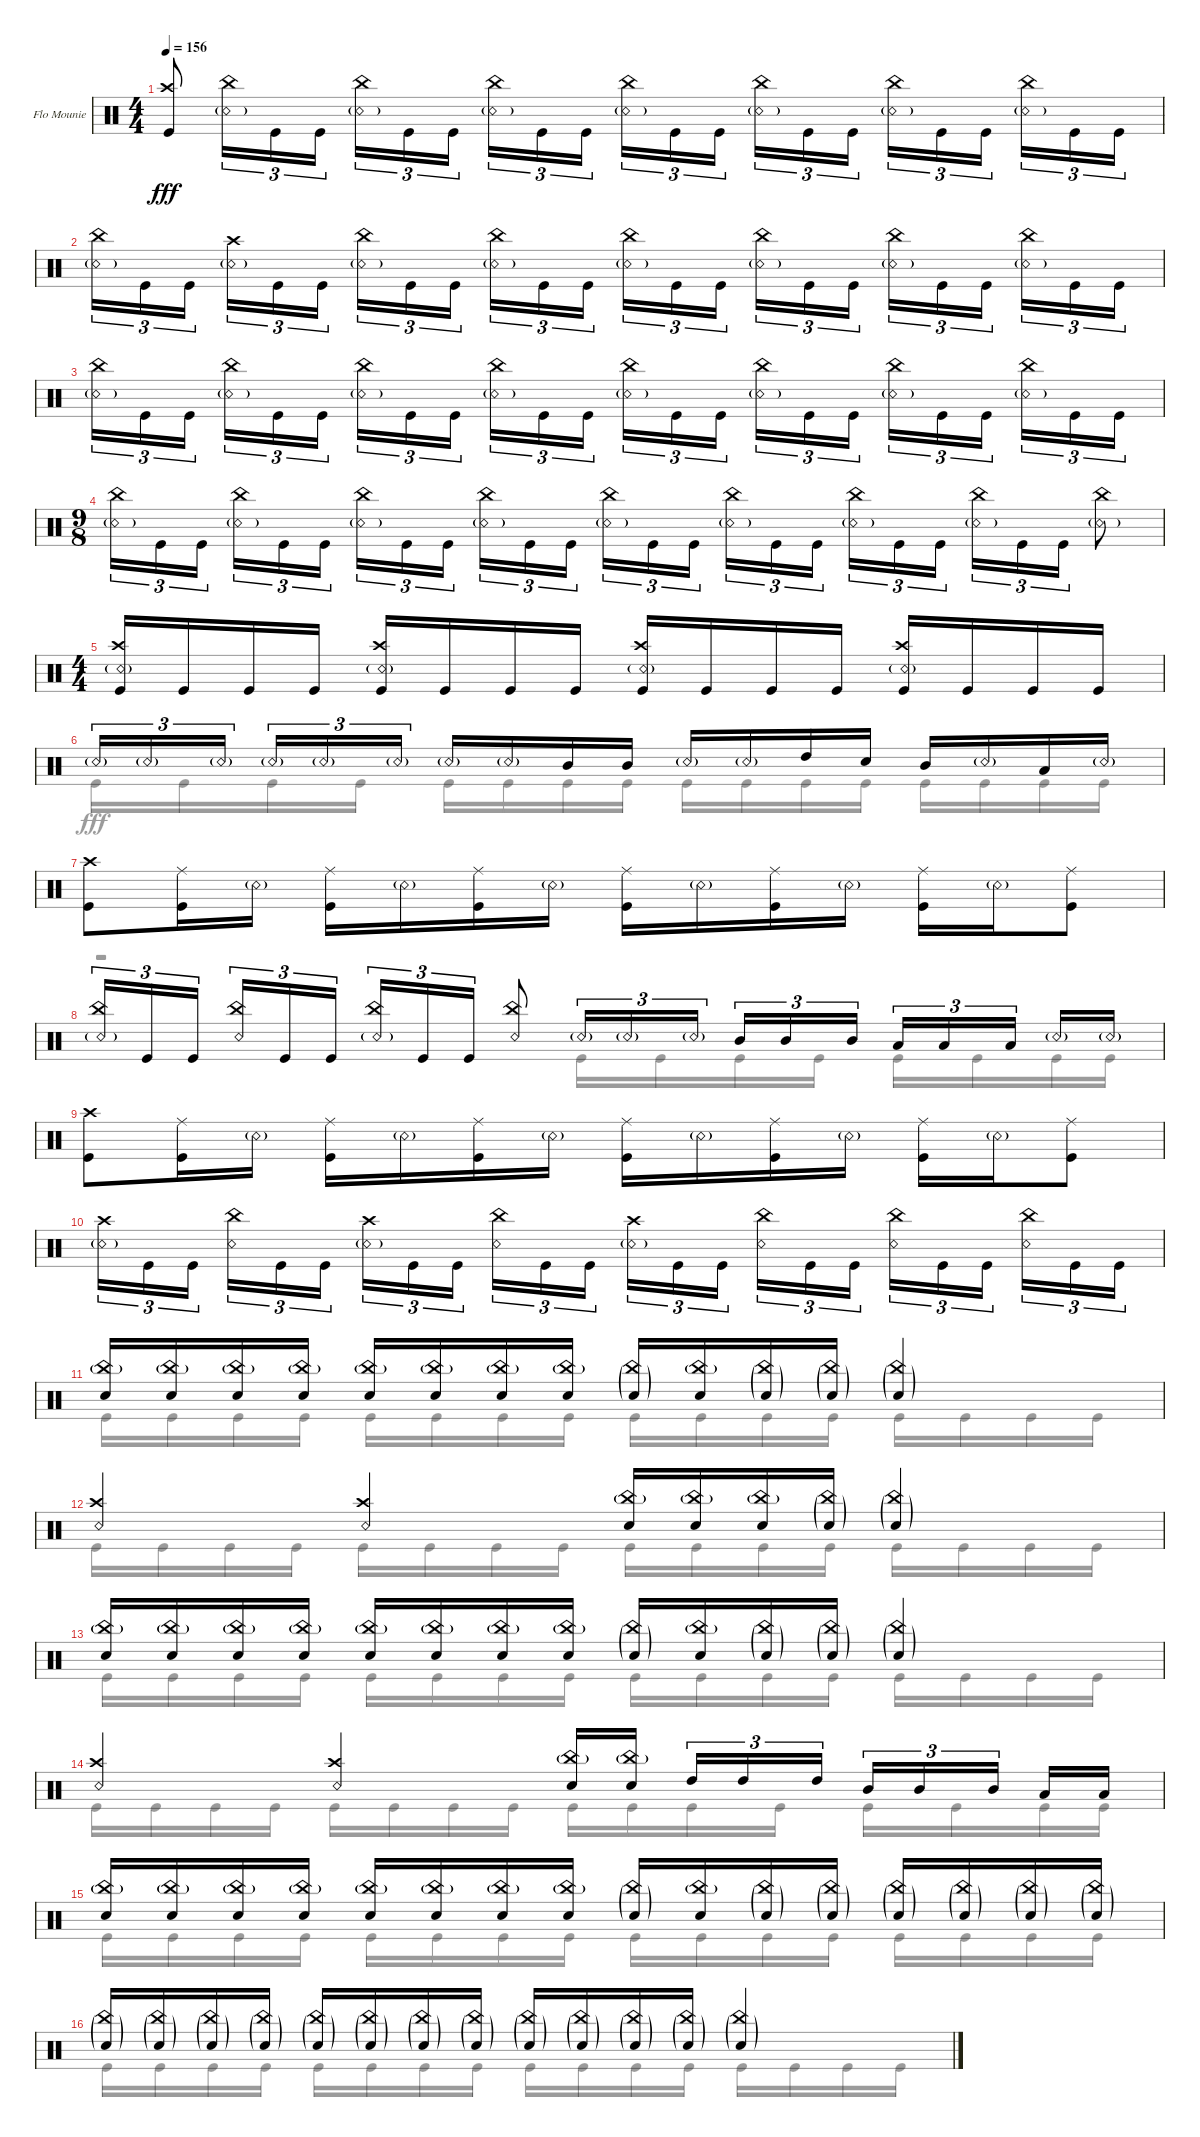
\bracketExtendMode groupsimilarinstruments
\firstSystemTrackNameOrientation horizontal
\otherSystemsTrackNameOrientation horizontal
\track ("Flo Mounier" "Flo Mounie") {instrument percussion}
\staff {score}
\articulation defaults
\voice
\ts (4 4)
\tempo 156
\clef neutral
\ks c
("Kick (hit)" "Crash high (hit)").8{dy fff beam invert} ("Snare (rim shot)"{g} "China (hit)").16{tu (3 2)} "Kick (hit)".16{tu (3 2)} "Kick (hit)".16{tu (3 2)} ("Snare (rim shot)"{g} "China (hit)").16{tu (3 2)} "Kick (hit)".16{tu (3 2)} "Kick (hit)".16{tu (3 2)} ("Snare (rim shot)"{g} "China (hit)").16{tu (3 2)} "Kick (hit)".16{tu (3 2)} "Kick (hit)".16{tu (3 2)} ("Snare (rim shot)"{g} "China (hit)").16{tu (3 2)} "Kick (hit)".16{tu (3 2)} "Kick (hit)".16{tu (3 2)} ("Snare (rim shot)"{g} "China (hit)").16{tu (3 2)} "Kick (hit)".16{tu (3 2)} "Kick (hit)".16{tu (3 2)} ("Snare (rim shot)"{g} "China (hit)").16{tu (3 2)} "Kick (hit)".16{tu (3 2)} "Kick (hit)".16{tu (3 2)} ("Snare (rim shot)"{g} "China (hit)").16{tu (3 2)} "Kick (hit)".16{tu (3 2)} "Kick (hit)".16{tu (3 2)} |
("Snare (rim shot)"{g} "China (hit)").16{tu (3 2)} "Kick (hit)".16{tu (3 2)} "Kick (hit)".16{tu (3 2)} ("Snare (rim shot)"{g} "Crash high (hit)").16{tu (3 2)} "Kick (hit)".16{tu (3 2)} "Kick (hit)".16{tu (3 2)} ("Snare (rim shot)"{g} "China (hit)").16{tu (3 2)} "Kick (hit)".16{tu (3 2)} "Kick (hit)".16{tu (3 2)} ("Snare (rim shot)"{g} "China (hit)").16{tu (3 2)} "Kick (hit)".16{tu (3 2)} "Kick (hit)".16{tu (3 2)} ("Snare (rim shot)"{g} "China (hit)").16{tu (3 2)} "Kick (hit)".16{tu (3 2)} "Kick (hit)".16{tu (3 2)} ("Snare (rim shot)"{g} "China (hit)").16{tu (3 2)} "Kick (hit)".16{tu (3 2)} "Kick (hit)".16{tu (3 2)} ("Snare (rim shot)"{g} "China (hit)").16{tu (3 2)} "Kick (hit)".16{tu (3 2)} "Kick (hit)".16{tu (3 2)} ("Snare (rim shot)"{g} "China (hit)").16{tu (3 2)} "Kick (hit)".16{tu (3 2)} "Kick (hit)".16{tu (3 2)} |
("Snare (rim shot)"{g} "China (hit)").16{tu (3 2)} "Kick (hit)".16{tu (3 2)} "Kick (hit)".16{tu (3 2)} ("Snare (rim shot)"{g} "China (hit)").16{tu (3 2)} "Kick (hit)".16{tu (3 2)} "Kick (hit)".16{tu (3 2)} ("Snare (rim shot)"{g} "China (hit)").16{tu (3 2)} "Kick (hit)".16{tu (3 2)} "Kick (hit)".16{tu (3 2)} ("Snare (rim shot)"{g} "China (hit)").16{tu (3 2)} "Kick (hit)".16{tu (3 2)} "Kick (hit)".16{tu (3 2)} ("Snare (rim shot)"{g} "China (hit)").16{tu (3 2)} "Kick (hit)".16{tu (3 2)} "Kick (hit)".16{tu (3 2)} ("Snare (rim shot)"{g} "China (hit)").16{tu (3 2)} "Kick (hit)".16{tu (3 2)} "Kick (hit)".16{tu (3 2)} ("Snare (rim shot)"{g} "China (hit)").16{tu (3 2)} "Kick (hit)".16{tu (3 2)} "Kick (hit)".16{tu (3 2)} ("Snare (rim shot)"{g} "China (hit)").16{tu (3 2)} "Kick (hit)".16{tu (3 2)} "Kick (hit)".16{tu (3 2)} |
\ts (9 8)
\beaming (8 2 2 2 3)
("Snare (rim shot)"{g} "China (hit)").16{tu (3 2)} "Kick (hit)".16{tu (3 2)} "Kick (hit)".16{tu (3 2)} ("Snare (rim shot)"{g} "China (hit)").16{tu (3 2)} "Kick (hit)".16{tu (3 2)} "Kick (hit)".16{tu (3 2)} ("Snare (rim shot)"{g} "China (hit)").16{tu (3 2)} "Kick (hit)".16{tu (3 2)} "Kick (hit)".16{tu (3 2)} ("Snare (rim shot)"{g} "China (hit)").16{tu (3 2)} "Kick (hit)".16{tu (3 2)} "Kick (hit)".16{tu (3 2)} ("Snare (rim shot)"{g} "China (hit)").16{tu (3 2)} "Kick (hit)".16{tu (3 2)} "Kick (hit)".16{tu (3 2)} ("Snare (rim shot)"{g} "China (hit)").16{tu (3 2)} "Kick (hit)".16{tu (3 2)} "Kick (hit)".16{tu (3 2)} ("Snare (rim shot)"{g} "China (hit)").16{tu (3 2)} "Kick (hit)".16{tu (3 2)} "Kick (hit)".16{tu (3 2)} ("Snare (rim shot)"{g} "China (hit)").16{tu (3 2)} "Kick (hit)".16{tu (3 2)} "Kick (hit)".16{tu (3 2)} ("Snare (rim shot)"{g} "China (hit)").8 |
\ts (4 4)
("Kick (hit)" "Snare (rim shot)"{g} "Crash high (hit)").16 "Kick (hit)".16 "Kick (hit)".16 "Kick (hit)".16 ("Kick (hit)" "Snare (rim shot)"{g} "Crash high (hit)").16 "Kick (hit)".16 "Kick (hit)".16 "Kick (hit)".16 ("Kick (hit)" "Snare (rim shot)"{g} "Crash high (hit)").16 "Kick (hit)".16 "Kick (hit)".16 "Kick (hit)".16 ("Kick (hit)" "Snare (rim shot)"{g} "Crash high (hit)").16 "Kick (hit)".16 "Kick (hit)".16 "Kick (hit)".16 |
"Snare (rim shot)"{g}.16{tu (3 2)} "Snare (rim shot)"{g}.16{tu (3 2)} "Snare (rim shot)"{g}.16{tu (3 2)} "Snare (rim shot)"{g}.16{tu (3 2)} "Snare (rim shot)"{g}.16{tu (3 2)} "Snare (rim shot)"{g}.16{tu (3 2)} "Snare (rim shot)"{g}.16 "Snare (rim shot)"{g}.16 "Mid Tom (hit)".16 "Mid Tom (hit)".16 "Snare (rim shot)"{g}.16 "Snare (rim shot)"{g}.16 "High Tom (hit)".16 "Snare (hit) 2".16 "Mid Tom (hit)".16 "Snare (rim shot)"{g}.16 "Low Tom (hit)".16 "Snare (rim shot)"{g}.16 |
("Crash high (hit)" "Kick (hit)").8 ("Ride (middle)" "Kick (hit)").16 "Snare (rim shot)"{g}.16 ("Ride (middle)" "Kick (hit)").16 "Snare (rim shot)"{g}.16 ("Ride (middle)" "Kick (hit)").16 "Snare (rim shot)"{g}.16 ("Ride (middle)" "Kick (hit)").16 "Snare (rim shot)"{g}.16 ("Ride (middle)" "Kick (hit)").16 "Snare (rim shot)"{g}.16 ("Ride (middle)" "Kick (hit)").16 "Snare (rim shot)"{g}.16 ("Ride (middle)" "Kick (hit)").8 |
("Snare (rim shot)"{g} "China (hit)").16{tu (3 2)} "Kick (hit)".16{tu (3 2)} "Kick (hit)".16{tu (3 2)} ("Snare (rim shot)" "China (hit)").16{tu (3 2)} "Kick (hit)".16{tu (3 2)} "Kick (hit)".16{tu (3 2)} ("Snare (rim shot)"{g} "China (hit)").16{tu (3 2)} "Kick (hit)".16{tu (3 2)} "Kick (hit)".16{tu (3 2)} ("Snare (rim shot)" "China (hit)").8 "Snare (rim shot)"{g}.16{tu (3 2)} "Snare (rim shot)"{g}.16{tu (3 2)} "Snare (rim shot)"{g}.16{tu (3 2)} "Mid Tom (hit)".16{tu (3 2)} "Mid Tom (hit)".16{tu (3 2)} "Mid Tom (hit)".16{tu (3 2)} "Low Tom (hit)".16{tu (3 2)} "Low Tom (hit)".16{tu (3 2)} "Low Tom (hit)".16{tu (3 2)} "Snare (rim shot)"{g}.16 "Snare (rim shot)"{g}.16 |
("Crash high (hit)" "Kick (hit)").8 ("Ride (middle)" "Kick (hit)").16 "Snare (rim shot)"{g}.16 ("Ride (middle)" "Kick (hit)").16 "Snare (rim shot)"{g}.16 ("Ride (middle)" "Kick (hit)").16 "Snare (rim shot)"{g}.16 ("Ride (middle)" "Kick (hit)").16 "Snare (rim shot)"{g}.16 ("Ride (middle)" "Kick (hit)").16 "Snare (rim shot)"{g}.16 ("Ride (middle)" "Kick (hit)").16 "Snare (rim shot)"{g}.16 ("Ride (middle)" "Kick (hit)").8 |
("Snare (rim shot)"{g} "Crash high (hit)").16{tu (3 2)} "Kick (hit)".16{tu (3 2)} "Kick (hit)".16{tu (3 2)} ("Snare (rim shot)" "China (hit)").16{tu (3 2)} "Kick (hit)".16{tu (3 2)} "Kick (hit)".16{tu (3 2)} ("Snare (rim shot)"{g} "Crash high (hit)").16{tu (3 2)} "Kick (hit)".16{tu (3 2)} "Kick (hit)".16{tu (3 2)} ("Snare (rim shot)" "China (hit)").16{tu (3 2)} "Kick (hit)".16{tu (3 2)} "Kick (hit)".16{tu (3 2)} ("Snare (rim shot)"{g} "Crash high (hit)").16{tu (3 2)} "Kick (hit)".16{tu (3 2)} "Kick (hit)".16{tu (3 2)} ("Snare (rim shot)" "China (hit)").16{tu (3 2)} "Kick (hit)".16{tu (3 2)} "Kick (hit)".16{tu (3 2)} ("Snare (rim shot)" "China (hit)").16{tu (3 2)} "Kick (hit)".16{tu (3 2)} "Kick (hit)".16{tu (3 2)} ("Snare (rim shot)" "China (hit)").16{tu (3 2)} "Kick (hit)".16{tu (3 2)} "Kick (hit)".16{tu (3 2)} |
("Snare (hit) 2" "China (hit)"{g}).16 ("Snare (hit) 2" "China (hit)"{g}).16 ("Snare (hit) 2" "China (hit)"{g}).16 ("Snare (hit) 2" "China (hit)"{g}).16 ("Snare (hit) 2" "China (hit)"{g}).16 ("Snare (hit) 2" "China (hit)"{g}).16 ("Snare (hit) 2" "China (hit)"{g}).16 ("Snare (hit) 2" "China (hit)"{g}).16 ("Snare (hit) 2"{g} "China (hit)"{g}).16 ("Snare (hit) 2" "China (hit)"{g}).16 ("Snare (hit) 2"{g} "China (hit)"{g}).16 ("Snare (hit) 2"{g} "China (hit)"{g}).16 ("Snare (hit) 2"{g} "China (hit)"{g}).4 |
("Snare (rim shot)" "Crash high (hit)").4 ("Snare (rim shot)" "Crash high (hit)").4 ("Snare (hit) 2" "China (hit)"{g}).16 ("Snare (hit) 2" "China (hit)"{g}).16 ("Snare (hit) 2" "China (hit)"{g}).16 ("Snare (hit) 2"{g} "China (hit)"{g}).16 ("Snare (hit) 2"{g} "China (hit)"{g}).4 |
("Snare (hit) 2" "China (hit)"{g}).16 ("Snare (hit) 2" "China (hit)"{g}).16 ("Snare (hit) 2" "China (hit)"{g}).16 ("Snare (hit) 2" "China (hit)"{g}).16 ("Snare (hit) 2" "China (hit)"{g}).16 ("Snare (hit) 2" "China (hit)"{g}).16 ("Snare (hit) 2" "China (hit)"{g}).16 ("Snare (hit) 2" "China (hit)"{g}).16 ("Snare (hit) 2"{g} "China (hit)"{g}).16 ("Snare (hit) 2" "China (hit)"{g}).16 ("Snare (hit) 2"{g} "China (hit)"{g}).16 ("Snare (hit) 2"{g} "China (hit)"{g}).16 ("Snare (hit) 2"{g} "China (hit)"{g}).4 |
("Snare (rim shot)" "Crash high (hit)").4 ("Snare (rim shot)" "Crash high (hit)").4 ("Snare (hit) 2" "China (hit)"{g}).16 ("Snare (hit) 2" "China (hit)"{g}).16 "High Tom (hit)".16{tu (3 2)} "High Tom (hit)".16{tu (3 2)} "High Tom (hit)".16{tu (3 2)} "Mid Tom (hit)".16{tu (3 2)} "Mid Tom (hit)".16{tu (3 2)} "Mid Tom (hit)".16{tu (3 2)} "Low Tom (hit)".16 "Low Tom (hit)".16 |
("Snare (hit) 2" "China (hit)"{g}).16 ("Snare (hit) 2" "China (hit)"{g}).16 ("Snare (hit) 2" "China (hit)"{g}).16 ("Snare (hit) 2" "China (hit)"{g}).16 ("Snare (hit) 2" "China (hit)"{g}).16 ("Snare (hit) 2" "China (hit)"{g}).16 ("Snare (hit) 2" "China (hit)"{g}).16 ("Snare (hit) 2" "China (hit)"{g}).16 ("Snare (hit) 2"{g} "China (hit)"{g}).16 ("Snare (hit) 2" "China (hit)"{g}).16 ("Snare (hit) 2"{g} "China (hit)"{g}).16 ("Snare (hit) 2"{g} "China (hit)"{g}).16 ("Snare (hit) 2"{g} "China (hit)"{g}).16 ("Snare (hit) 2"{g} "China (hit)"{g}).16 ("Snare (hit) 2"{g} "China (hit)"{g}).16 ("Snare (hit) 2"{g} "China (hit)"{g}).16 |
("Snare (hit) 2"{g} "China (hit)"{g}).16 ("Snare (hit) 2"{g} "China (hit)"{g}).16 ("Snare (hit) 2"{g} "China (hit)"{g}).16 ("Snare (hit) 2"{g} "China (hit)"{g}).16 ("Snare (hit) 2"{g} "China (hit)"{g}).16 ("Snare (hit) 2"{g} "China (hit)"{g}).16 ("Snare (hit) 2"{g} "China (hit)"{g}).16 ("Snare (hit) 2"{g} "China (hit)"{g}).16 ("Snare (hit) 2"{g} "China (hit)"{g}).16 ("Snare (hit) 2"{g} "China (hit)"{g}).16 ("Snare (hit) 2"{g} "China (hit)"{g}).16 ("Snare (hit) 2"{g} "China (hit)"{g}).16 ("Snare (hit) 2"{g} "China (hit)"{g}).4
\voice
\clef neutral
\ottava regular
\simile none
\ks c
|
|
|
|
|
"Kick (hit)".16 "Kick (hit)".16 "Kick (hit)".16 "Kick (hit)".16 "Kick (hit)".16 "Kick (hit)".16 "Kick (hit)".16 "Kick (hit)".16 "Kick (hit)".16 "Kick (hit)".16 "Kick (hit)".16 "Kick (hit)".16 "Kick (hit)".16 "Kick (hit)".16 "Kick (hit)".16 "Kick (hit)".16 |
|
r.2 "Kick (hit)".16 "Kick (hit)".16 "Kick (hit)".16 "Kick (hit)".16 "Kick (hit)".16 "Kick (hit)".16 "Kick (hit)".16 "Kick (hit)".16 |
|
|
"Kick (hit)".16 "Kick (hit)".16 "Kick (hit)".16 "Kick (hit)".16 "Kick (hit)".16 "Kick (hit)".16 "Kick (hit)".16 "Kick (hit)".16 "Kick (hit)".16 "Kick (hit)".16 "Kick (hit)".16 "Kick (hit)".16 "Kick (hit)".16 "Kick (hit)".16 "Kick (hit)".16 "Kick (hit)".16 |
"Kick (hit)".16 "Kick (hit)".16 "Kick (hit)".16 "Kick (hit)".16 "Kick (hit)".16 "Kick (hit)".16 "Kick (hit)".16 "Kick (hit)".16 "Kick (hit)".16 "Kick (hit)".16 "Kick (hit)".16 "Kick (hit)".16 "Kick (hit)".16 "Kick (hit)".16 "Kick (hit)".16 "Kick (hit)".16 |
"Kick (hit)".16 "Kick (hit)".16 "Kick (hit)".16 "Kick (hit)".16 "Kick (hit)".16 "Kick (hit)".16 "Kick (hit)".16 "Kick (hit)".16 "Kick (hit)".16 "Kick (hit)".16 "Kick (hit)".16 "Kick (hit)".16 "Kick (hit)".16 "Kick (hit)".16 "Kick (hit)".16 "Kick (hit)".16 |
"Kick (hit)".16 "Kick (hit)".16 "Kick (hit)".16 "Kick (hit)".16 "Kick (hit)".16 "Kick (hit)".16 "Kick (hit)".16 "Kick (hit)".16 "Kick (hit)".16 "Kick (hit)".16 "Kick (hit)".16 "Kick (hit)".16 "Kick (hit)".16 "Kick (hit)".16 "Kick (hit)".16 "Kick (hit)".16 |
"Kick (hit)".16 "Kick (hit)".16 "Kick (hit)".16 "Kick (hit)".16 "Kick (hit)".16 "Kick (hit)".16 "Kick (hit)".16 "Kick (hit)".16 "Kick (hit)".16 "Kick (hit)".16 "Kick (hit)".16 "Kick (hit)".16 "Kick (hit)".16 "Kick (hit)".16 "Kick (hit)".16 "Kick (hit)".16 |
"Kick (hit)".16 "Kick (hit)".16 "Kick (hit)".16 "Kick (hit)".16 "Kick (hit)".16 "Kick (hit)".16 "Kick (hit)".16 "Kick (hit)".16 "Kick (hit)".16 "Kick (hit)".16 "Kick (hit)".16 "Kick (hit)".16 "Kick (hit)".16 "Kick (hit)".16 "Kick (hit)".16 "Kick (hit)".16
